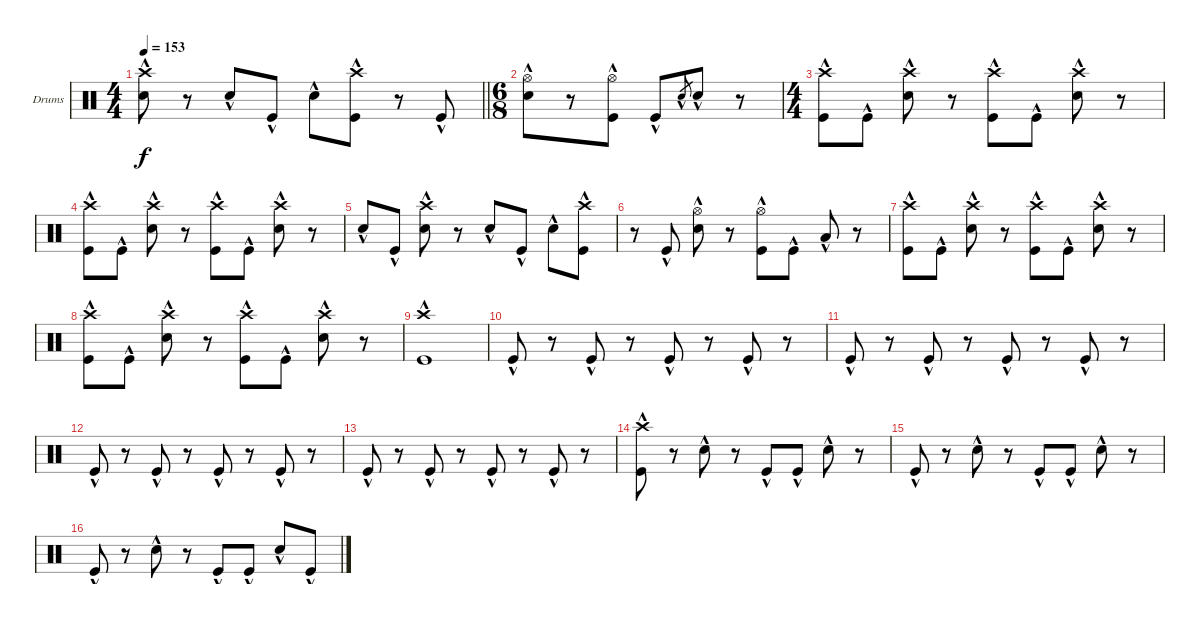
\bracketExtendMode groupsimilarinstruments
\firstSystemTrackNameOrientation horizontal
\otherSystemsTrackNameOrientation horizontal
\track ("Drumkit" "Drums") {solo instrument percussion}
\staff {score}
\articulation defaults
\ts (4 4)
\tempo 153
\clef neutral
\barLineRight lightlight
\ks c
("Crash high (hit)"{hac} "Snare (hit) 2"{hac}).8{dy f} r.8 "Snare (hit) 2"{hac}.8 "Kick (hit)"{hac}.8 "Snare (hit) 2"{hac}.8 ("Crash high (hit)"{hac} "Kick (hit)"{hac}).8 r.8 "Kick (hit)"{hac}.8 |
\ts (6 8)
\beaming (8 3 3)
("Hi-Hat (open)"{hac} "Snare (hit) 2"{hac}).8 r.8 ("Hi-Hat (open)"{hac} "Kick (hit)"{hac}).8 "Kick (hit)"{hac}.8 "Snare (hit) 2"{hac}.8{gr} "Snare (hit) 2"{hac}.8 r.8 |
\ts (4 4)
\beaming (8 2 2 2 2)
("Crash high (hit)"{hac} "Kick (hit)"{hac}).8 "Kick (hit)"{hac}.8 ("Crash high (hit)"{hac} "Snare (hit) 2"{hac}).8 r.8 ("Crash high (hit)"{hac} "Kick (hit)"{hac}).8 "Kick (hit)"{hac}.8 ("Crash high (hit)"{hac} "Snare (hit) 2"{hac}).8 r.8 |
("Crash high (hit)"{hac} "Kick (hit)"{hac}).8 "Kick (hit)"{hac}.8 ("Crash high (hit)"{hac} "Snare (hit) 2"{hac}).8 r.8 ("Crash high (hit)"{hac} "Kick (hit)"{hac}).8 "Kick (hit)"{hac}.8 ("Crash high (hit)"{hac} "Snare (hit) 2"{hac}).8 r.8 |
"Snare (hit) 2"{hac}.8 "Kick (hit)"{hac}.8 ("Crash high (hit)"{hac} "Snare (hit) 2"{hac}).8 r.8 "Snare (hit) 2"{hac}.8 "Kick (hit)"{hac}.8 "Snare (hit) 2"{hac}.8 ("Crash high (hit)"{hac} "Kick (hit)"{hac}).8 |
r.8 "Kick (hit)"{hac}.8 ("Hi-Hat (open)"{hac} "Snare (hit) 2"{hac}).8 r.8 ("Hi-Hat (open)"{hac} "Kick (hit)"{hac}).8 "Kick (hit)"{hac}.8 "Low Tom (hit)"{hac}.8 r.8 |
("Crash high (hit)"{hac} "Kick (hit)"{hac}).8 "Kick (hit)"{hac}.8 ("Crash high (hit)"{hac} "Snare (hit) 2"{hac}).8 r.8 ("Crash high (hit)"{hac} "Kick (hit)"{hac}).8 "Kick (hit)"{hac}.8 ("Crash high (hit)"{hac} "Snare (hit) 2"{hac}).8 r.8 |
("Crash high (hit)"{hac} "Kick (hit)"{hac}).8 "Kick (hit)"{hac}.8 ("Crash high (hit)"{hac} "Snare (hit) 2"{hac}).8 r.8 ("Crash high (hit)"{hac} "Kick (hit)"{hac}).8 "Kick (hit)"{hac}.8 ("Crash high (hit)"{hac} "Snare (hit) 2"{hac}).8 r.8 |
("Crash high (hit)"{hac} "Kick (hit)"{hac}).1 |
"Kick (hit)"{hac}.8 r.8 "Kick (hit)"{hac}.8 r.8 "Kick (hit)"{hac}.8 r.8 "Kick (hit)"{hac}.8 r.8 |
"Kick (hit)"{hac}.8 r.8 "Kick (hit)"{hac}.8 r.8 "Kick (hit)"{hac}.8 r.8 "Kick (hit)"{hac}.8 r.8 |
"Kick (hit)"{hac}.8 r.8 "Kick (hit)"{hac}.8 r.8 "Kick (hit)"{hac}.8 r.8 "Kick (hit)"{hac}.8 r.8 |
"Kick (hit)"{hac}.8 r.8 "Kick (hit)"{hac}.8 r.8 "Kick (hit)"{hac}.8 r.8 "Kick (hit)"{hac}.8 r.8 |
("Crash high (hit)"{hac} "Kick (hit)"{hac}).8 r.8 "Snare (hit) 2"{hac}.8 r.8 "Kick (hit)"{hac}.8 "Kick (hit)"{hac}.8 "Snare (hit) 2"{hac}.8 r.8 |
"Kick (hit)"{hac}.8 r.8 "Snare (hit) 2"{hac}.8 r.8 "Kick (hit)"{hac}.8 "Kick (hit)"{hac}.8 "Snare (hit) 2"{hac}.8 r.8 |
"Kick (hit)"{hac}.8 r.8 "Snare (hit) 2"{hac}.8 r.8 "Kick (hit)"{hac}.8 "Kick (hit)"{hac}.8 "Snare (hit) 2"{hac}.8 "Kick (hit)"{hac}.8
